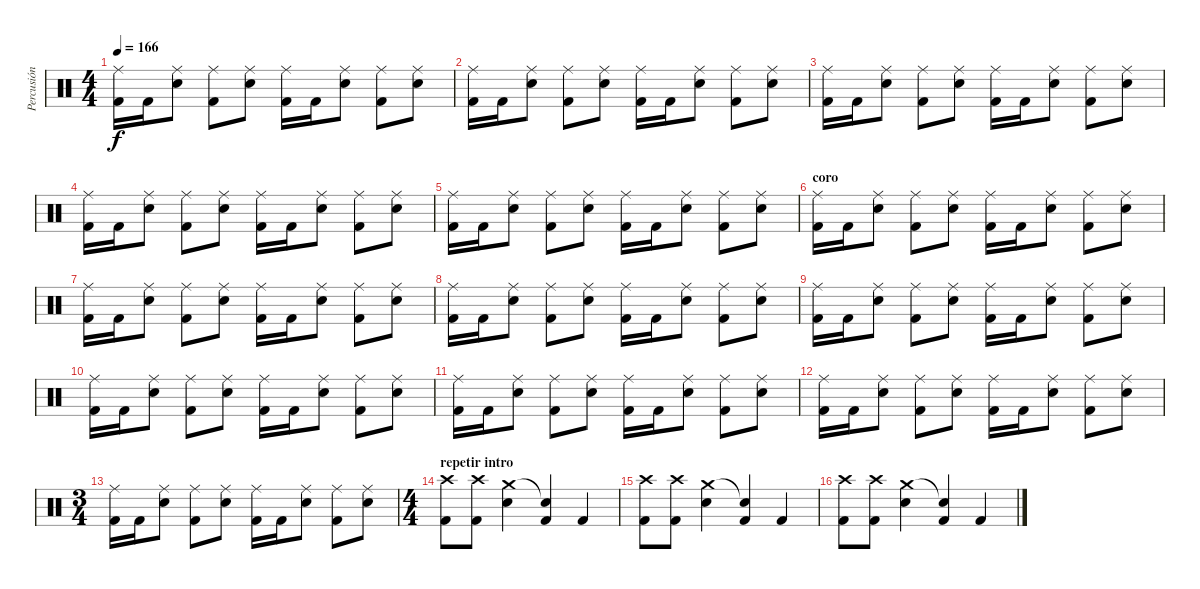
\track ("Percusión" "Percusión") {instrument percussion}
\staff {score}
\articulation defaults
\ts (4 4)
\tempo 166
\clef neutral
\ks c
("Ride (middle)" "Kick (hit) 2").16{dy f} "Kick (hit) 2".16 ("Ride (middle)" "Electric Snare (hit)").8 ("Ride (middle)" "Kick (hit) 2").8 ("Ride (middle)" "Electric Snare (hit)").8 ("Ride (middle)" "Kick (hit) 2").16 "Kick (hit) 2".16 ("Ride (middle)" "Electric Snare (hit)").8 ("Ride (middle)" "Kick (hit) 2").8 ("Ride (middle)" "Electric Snare (hit)").8 |
("Ride (middle)" "Kick (hit) 2").16 "Kick (hit) 2".16 ("Ride (middle)" "Electric Snare (hit)").8 ("Ride (middle)" "Kick (hit) 2").8 ("Ride (middle)" "Electric Snare (hit)").8 ("Ride (middle)" "Kick (hit) 2").16 "Kick (hit) 2".16 ("Ride (middle)" "Electric Snare (hit)").8 ("Ride (middle)" "Kick (hit) 2").8 ("Ride (middle)" "Electric Snare (hit)").8 |
("Ride (middle)" "Kick (hit) 2").16 "Kick (hit) 2".16 ("Ride (middle)" "Electric Snare (hit)").8 ("Ride (middle)" "Kick (hit) 2").8 ("Ride (middle)" "Electric Snare (hit)").8 ("Ride (middle)" "Kick (hit) 2").16 "Kick (hit) 2".16 ("Ride (middle)" "Electric Snare (hit)").8 ("Ride (middle)" "Kick (hit) 2").8 ("Ride (middle)" "Electric Snare (hit)").8 |
("Ride (middle)" "Kick (hit) 2").16 "Kick (hit) 2".16 ("Ride (middle)" "Electric Snare (hit)").8 ("Ride (middle)" "Kick (hit) 2").8 ("Ride (middle)" "Electric Snare (hit)").8 ("Ride (middle)" "Kick (hit) 2").16 "Kick (hit) 2".16 ("Ride (middle)" "Electric Snare (hit)").8 ("Ride (middle)" "Kick (hit) 2").8 ("Ride (middle)" "Electric Snare (hit)").8 |
("Ride (middle)" "Kick (hit) 2").16 "Kick (hit) 2".16 ("Ride (middle)" "Electric Snare (hit)").8 ("Ride (middle)" "Kick (hit) 2").8 ("Ride (middle)" "Electric Snare (hit)").8 ("Ride (middle)" "Kick (hit) 2").16 "Kick (hit) 2".16 ("Ride (middle)" "Electric Snare (hit)").8 ("Ride (middle)" "Kick (hit) 2").8 ("Ride (middle)" "Electric Snare (hit)").8 |
\section ("" "coro")
("Ride (middle)" "Kick (hit) 2").16 "Kick (hit) 2".16 ("Ride (middle)" "Electric Snare (hit)").8 ("Ride (middle)" "Kick (hit) 2").8 ("Ride (middle)" "Electric Snare (hit)").8 ("Ride (middle)" "Kick (hit) 2").16 "Kick (hit) 2".16 ("Ride (middle)" "Electric Snare (hit)").8 ("Ride (middle)" "Kick (hit) 2").8 ("Ride (middle)" "Electric Snare (hit)").8 |
("Ride (middle)" "Kick (hit) 2").16 "Kick (hit) 2".16 ("Ride (middle)" "Electric Snare (hit)").8 ("Ride (middle)" "Kick (hit) 2").8 ("Ride (middle)" "Electric Snare (hit)").8 ("Ride (middle)" "Kick (hit) 2").16 "Kick (hit) 2".16 ("Ride (middle)" "Electric Snare (hit)").8 ("Ride (middle)" "Kick (hit) 2").8 ("Ride (middle)" "Electric Snare (hit)").8 |
("Ride (middle)" "Kick (hit) 2").16 "Kick (hit) 2".16 ("Ride (middle)" "Electric Snare (hit)").8 ("Ride (middle)" "Kick (hit) 2").8 ("Ride (middle)" "Electric Snare (hit)").8 ("Ride (middle)" "Kick (hit) 2").16 "Kick (hit) 2".16 ("Ride (middle)" "Electric Snare (hit)").8 ("Ride (middle)" "Kick (hit) 2").8 ("Ride (middle)" "Electric Snare (hit)").8 |
("Ride (middle)" "Kick (hit) 2").16 "Kick (hit) 2".16 ("Ride (middle)" "Electric Snare (hit)").8 ("Ride (middle)" "Kick (hit) 2").8 ("Ride (middle)" "Electric Snare (hit)").8 ("Ride (middle)" "Kick (hit) 2").16 "Kick (hit) 2".16 ("Ride (middle)" "Electric Snare (hit)").8 ("Ride (middle)" "Kick (hit) 2").8 ("Ride (middle)" "Electric Snare (hit)").8 |
("Ride (middle)" "Kick (hit) 2").16 "Kick (hit) 2".16 ("Ride (middle)" "Electric Snare (hit)").8 ("Ride (middle)" "Kick (hit) 2").8 ("Ride (middle)" "Electric Snare (hit)").8 ("Ride (middle)" "Kick (hit) 2").16 "Kick (hit) 2".16 ("Ride (middle)" "Electric Snare (hit)").8 ("Ride (middle)" "Kick (hit) 2").8 ("Ride (middle)" "Electric Snare (hit)").8 |
("Ride (middle)" "Kick (hit) 2").16 "Kick (hit) 2".16 ("Ride (middle)" "Electric Snare (hit)").8 ("Ride (middle)" "Kick (hit) 2").8 ("Ride (middle)" "Electric Snare (hit)").8 ("Ride (middle)" "Kick (hit) 2").16 "Kick (hit) 2".16 ("Ride (middle)" "Electric Snare (hit)").8 ("Ride (middle)" "Kick (hit) 2").8 ("Ride (middle)" "Electric Snare (hit)").8 |
("Ride (middle)" "Kick (hit) 2").16 "Kick (hit) 2".16 ("Ride (middle)" "Electric Snare (hit)").8 ("Ride (middle)" "Kick (hit) 2").8 ("Ride (middle)" "Electric Snare (hit)").8 ("Ride (middle)" "Kick (hit) 2").16 "Kick (hit) 2".16 ("Ride (middle)" "Electric Snare (hit)").8 ("Ride (middle)" "Kick (hit) 2").8 ("Ride (middle)" "Electric Snare (hit)").8 |
\ts (3 4)
("Ride (middle)" "Kick (hit) 2").16 "Kick (hit) 2".16 ("Ride (middle)" "Electric Snare (hit)").8 ("Ride (middle)" "Kick (hit) 2").8 ("Ride (middle)" "Electric Snare (hit)").8 ("Ride (middle)" "Kick (hit) 2").16 "Kick (hit) 2".16 ("Ride (middle)" "Electric Snare (hit)").8 ("Ride (middle)" "Kick (hit) 2").8 ("Ride (middle)" "Electric Snare (hit)").8 |
\ts (4 4)
\section ("" "repetir intro")
("Crash high (hit)" "Kick (hit) 2").8 ("Crash high (hit)" "Kick (hit) 2").8 ("Crash medium (hit)" "Electric Snare (hit)").4 ("Snare (hit)"{t} "Kick (hit) 2").4 "Kick (hit) 2".4 |
("Crash high (hit)" "Kick (hit) 2").8 ("Crash high (hit)" "Kick (hit) 2").8 ("Crash medium (hit)" "Electric Snare (hit)").4 ("Snare (hit)"{t} "Kick (hit) 2").4 "Kick (hit) 2".4 |
("Crash high (hit)" "Kick (hit) 2").8 ("Crash high (hit)" "Kick (hit) 2").8 ("Crash medium (hit)" "Electric Snare (hit)").4 ("Snare (hit)"{t} "Kick (hit) 2").4 "Kick (hit) 2".4
